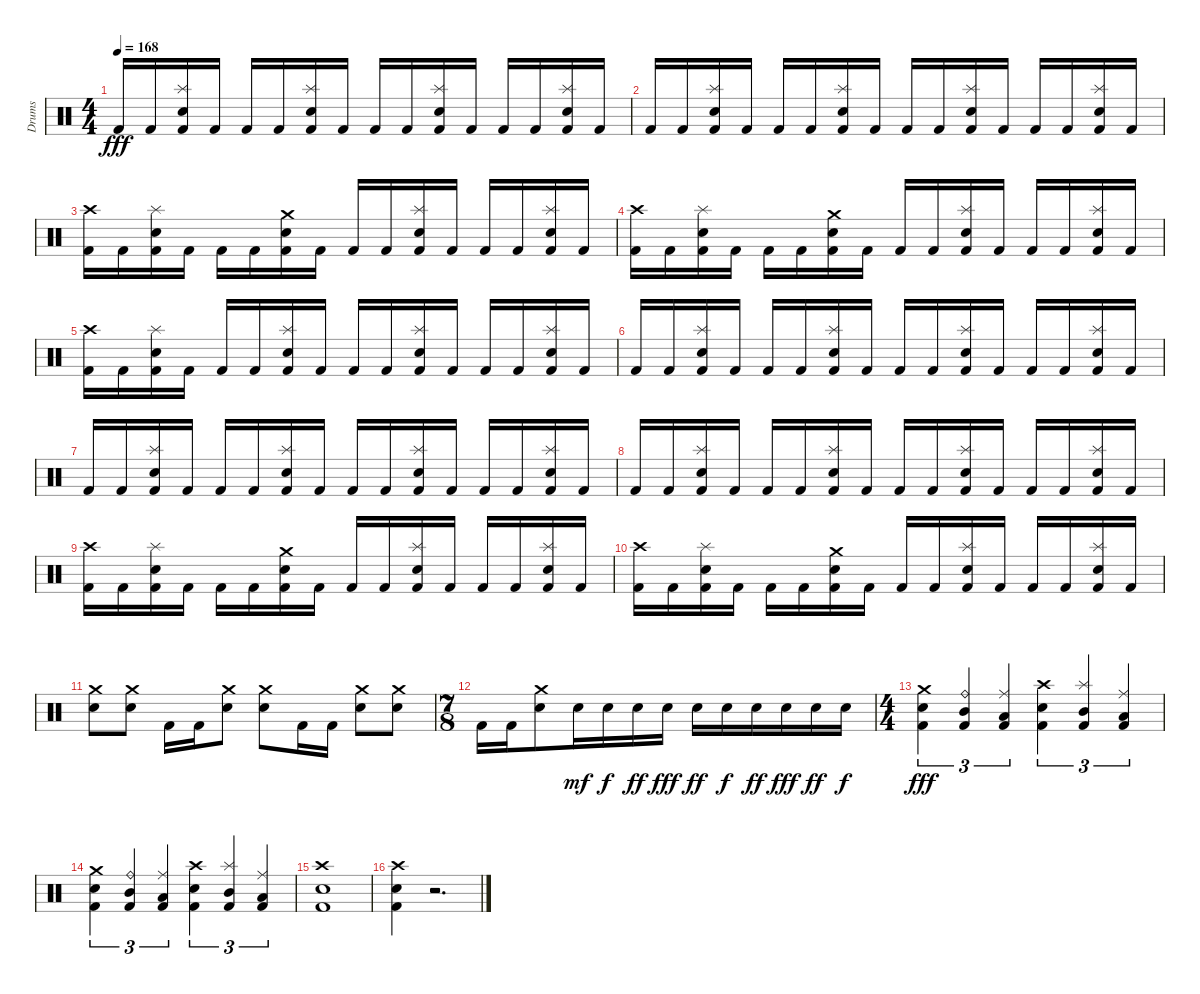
\track ("Drums" "Drums") {instrument percussion}
\staff {score}
\articulation defaults
\ts (4 4)
\tempo 168
\clef neutral
\ks c "Kick (hit) 2".16{dy fff} "Kick (hit) 2".16
("Splash (hit)" "Snare (hit) 2" "Kick (hit) 2").16 "Kick (hit) 2".16 "Kick (hit) 2".16 "Kick (hit) 2".16 ("Splash (hit)" "Snare (hit) 2" "Kick (hit) 2").16 "Kick (hit) 2".16 "Kick (hit) 2".16 "Kick (hit) 2".16 ("Splash (hit)" "Snare (hit) 2" "Kick (hit) 2").16 "Kick (hit) 2".16 "Kick (hit) 2".16 "Kick (hit) 2".16 ("Splash (hit)" "Snare (hit) 2" "Kick (hit) 2").16 "Kick (hit) 2".16 |
"Kick (hit) 2".16 "Kick (hit) 2".16 ("Splash (hit)" "Snare (hit) 2" "Kick (hit) 2").16 "Kick (hit) 2".16 "Kick (hit) 2".16 "Kick (hit) 2".16 ("Splash (hit)" "Snare (hit) 2" "Kick (hit) 2").16 "Kick (hit) 2".16 "Kick (hit) 2".16 "Kick (hit) 2".16 ("Splash (hit)" "Snare (hit) 2" "Kick (hit) 2").16 "Kick (hit) 2".16 "Kick (hit) 2".16 "Kick (hit) 2".16 ("Splash (hit)" "Snare (hit) 2" "Kick (hit) 2").16 "Kick (hit) 2".16 |
("Crash high (hit)" "Kick (hit) 2").16 "Kick (hit) 2".16 ("Splash (hit)" "Snare (hit) 2" "Kick (hit) 2").16 "Kick (hit) 2".16 "Kick (hit) 2".16 "Kick (hit) 2".16 ("Crash medium (hit)" "Snare (hit) 2" "Kick (hit) 2").16 "Kick (hit) 2".16 "Kick (hit) 2".16 "Kick (hit) 2".16 ("Splash (hit)" "Snare (hit) 2" "Kick (hit) 2").16 "Kick (hit) 2".16 "Kick (hit) 2".16 "Kick (hit) 2".16 ("Splash (hit)" "Snare (hit) 2" "Kick (hit) 2").16 "Kick (hit) 2".16 |
("Crash high (hit)" "Kick (hit) 2").16 "Kick (hit) 2".16 ("Splash (hit)" "Snare (hit) 2" "Kick (hit) 2").16 "Kick (hit) 2".16 "Kick (hit) 2".16 "Kick (hit) 2".16 ("Crash medium (hit)" "Snare (hit) 2" "Kick (hit) 2").16 "Kick (hit) 2".16 "Kick (hit) 2".16 "Kick (hit) 2".16 ("Splash (hit)" "Snare (hit) 2" "Kick (hit) 2").16 "Kick (hit) 2".16 "Kick (hit) 2".16 "Kick (hit) 2".16 ("Splash (hit)" "Snare (hit) 2" "Kick (hit) 2").16 "Kick (hit) 2".16 |
("Crash high (hit)" "Kick (hit) 2").16 "Kick (hit) 2".16 ("Splash (hit)" "Snare (hit) 2" "Kick (hit) 2").16 "Kick (hit) 2".16 "Kick (hit) 2".16 "Kick (hit) 2".16 ("Splash (hit)" "Snare (hit) 2" "Kick (hit) 2").16 "Kick (hit) 2".16 "Kick (hit) 2".16 "Kick (hit) 2".16 ("Splash (hit)" "Snare (hit) 2" "Kick (hit) 2").16 "Kick (hit) 2".16 "Kick (hit) 2".16 "Kick (hit) 2".16 ("Splash (hit)" "Snare (hit) 2" "Kick (hit) 2").16 "Kick (hit) 2".16 |
"Kick (hit) 2".16 "Kick (hit) 2".16 ("Splash (hit)" "Snare (hit) 2" "Kick (hit) 2").16 "Kick (hit) 2".16 "Kick (hit) 2".16 "Kick (hit) 2".16 ("Splash (hit)" "Snare (hit) 2" "Kick (hit) 2").16 "Kick (hit) 2".16 "Kick (hit) 2".16 "Kick (hit) 2".16 ("Splash (hit)" "Snare (hit) 2" "Kick (hit) 2").16 "Kick (hit) 2".16 "Kick (hit) 2".16 "Kick (hit) 2".16 ("Splash (hit)" "Snare (hit) 2" "Kick (hit) 2").16 "Kick (hit) 2".16 |
"Kick (hit) 2".16 "Kick (hit) 2".16 ("Splash (hit)" "Snare (hit) 2" "Kick (hit) 2").16 "Kick (hit) 2".16 "Kick (hit) 2".16 "Kick (hit) 2".16 ("Splash (hit)" "Snare (hit) 2" "Kick (hit) 2").16 "Kick (hit) 2".16 "Kick (hit) 2".16 "Kick (hit) 2".16 ("Splash (hit)" "Snare (hit) 2" "Kick (hit) 2").16 "Kick (hit) 2".16 "Kick (hit) 2".16 "Kick (hit) 2".16 ("Splash (hit)" "Snare (hit) 2" "Kick (hit) 2").16 "Kick (hit) 2".16 |
"Kick (hit) 2".16 "Kick (hit) 2".16 ("Splash (hit)" "Snare (hit) 2" "Kick (hit) 2").16 "Kick (hit) 2".16 "Kick (hit) 2".16 "Kick (hit) 2".16 ("Splash (hit)" "Snare (hit) 2" "Kick (hit) 2").16 "Kick (hit) 2".16 "Kick (hit) 2".16 "Kick (hit) 2".16 ("Splash (hit)" "Snare (hit) 2" "Kick (hit) 2").16 "Kick (hit) 2".16 "Kick (hit) 2".16 "Kick (hit) 2".16 ("Splash (hit)" "Snare (hit) 2" "Kick (hit) 2").16 "Kick (hit) 2".16 |
("Crash high (hit)" "Kick (hit) 2").16 "Kick (hit) 2".16 ("Splash (hit)" "Snare (hit) 2" "Kick (hit) 2").16 "Kick (hit) 2".16 "Kick (hit) 2".16 "Kick (hit) 2".16 ("Crash medium (hit)" "Snare (hit) 2" "Kick (hit) 2").16 "Kick (hit) 2".16 "Kick (hit) 2".16 "Kick (hit) 2".16 ("Splash (hit)" "Snare (hit) 2" "Kick (hit) 2").16 "Kick (hit) 2".16 "Kick (hit) 2".16 "Kick (hit) 2".16 ("Splash (hit)" "Snare (hit) 2" "Kick (hit) 2").16 "Kick (hit) 2".16 |
("Crash high (hit)" "Kick (hit) 2").16 "Kick (hit) 2".16 ("Splash (hit)" "Snare (hit) 2" "Kick (hit) 2").16 "Kick (hit) 2".16 "Kick (hit) 2".16 "Kick (hit) 2".16 ("Crash medium (hit)" "Snare (hit) 2" "Kick (hit) 2").16 "Kick (hit) 2".16 "Kick (hit) 2".16 "Kick (hit) 2".16 ("Splash (hit)" "Snare (hit) 2" "Kick (hit) 2").16 "Kick (hit) 2".16 "Kick (hit) 2".16 "Kick (hit) 2".16 ("Splash (hit)" "Snare (hit) 2" "Kick (hit) 2").16 "Kick (hit) 2".16 |
("Crash medium (hit)" "Snare (hit) 2").8 ("Crash medium (hit)" "Snare (hit) 2").8 "Kick (hit) 2".16 "Kick (hit) 2".16 ("Crash medium (hit)" "Snare (hit) 2").8 ("Crash medium (hit)" "Snare (hit) 2").8 "Kick (hit) 2".16 "Kick (hit) 2".16 ("Crash medium (hit)" "Snare (hit) 2").8 ("Crash medium (hit)" "Snare (hit) 2").8 |
\ts (7 8)
"Kick (hit) 2".16 "Kick (hit) 2".16 ("Crash medium (hit)" "Snare (hit) 2").8 "Snare (hit) 2".16{dy mf} "Snare (hit) 2".16{dy f} "Snare (hit) 2".16{dy ff} "Snare (hit) 2".16{dy fff} "Snare (hit) 2".16{dy ff} "Snare (hit) 2".16{dy f} "Snare (hit) 2".16{dy ff} "Snare (hit) 2".16{dy fff} "Snare (hit) 2".16{dy ff} "Snare (hit) 2".16{dy f} |
\ts (4 4)
("Crash medium (hit)" "Snare (hit) 2" "Kick (hit) 2").4{tu (3 2) dy fff} ("Ride (bell)" "Mid Tom (hit)" "Kick (hit) 2").4{tu (3 2)} ("Ride (middle)" "Low Tom (hit)" "Kick (hit) 2").4{tu (3 2)} ("Crash high (hit)" "Snare (hit) 2" "Kick (hit) 2").4{tu (3 2)} ("Splash (hit)" "Mid Tom (hit)" "Kick (hit) 2").4{tu (3 2)} ("Ride (middle)" "Low Tom (hit)" "Kick (hit) 2").4{tu (3 2)} |
("Crash medium (hit)" "Snare (hit) 2" "Kick (hit) 2").4{tu (3 2)} ("Ride (bell)" "Mid Tom (hit)" "Kick (hit) 2").4{tu (3 2)} ("Ride (middle)" "Low Tom (hit)" "Kick (hit) 2").4{tu (3 2)} ("Crash high (hit)" "Snare (hit) 2" "Kick (hit) 2").4{tu (3 2)} ("Splash (hit)" "Mid Tom (hit)" "Kick (hit) 2").4{tu (3 2)} ("Ride (middle)" "Low Tom (hit)" "Kick (hit) 2").4{tu (3 2)} |
("Crash high (hit)" "Snare (hit) 2" "Kick (hit) 2").1 |
("Crash high (hit)" "Snare (hit) 2" "Kick (hit) 2").4 r.2{d}
